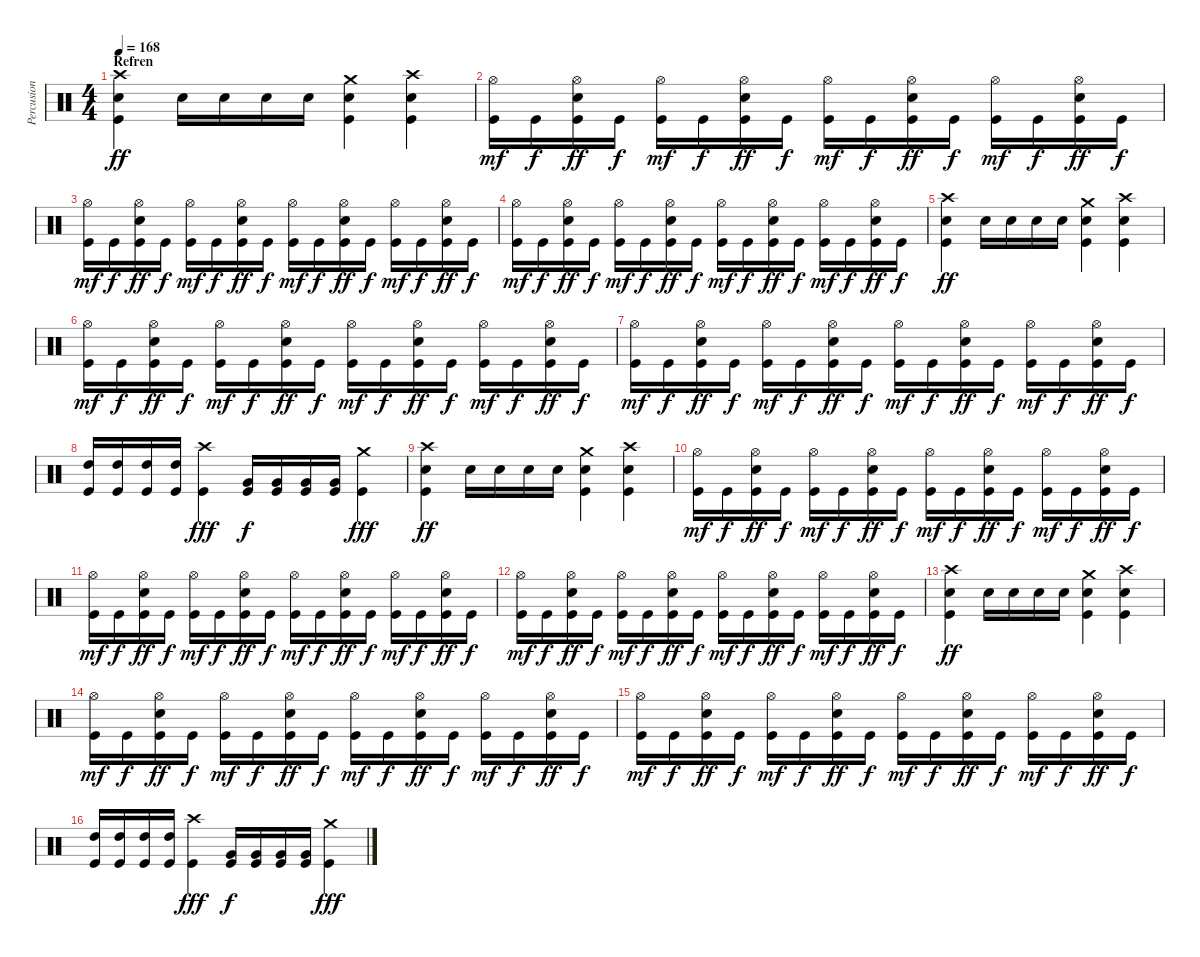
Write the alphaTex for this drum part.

\track ("Percusion" "Percusion") {instrument percussion}
\staff {score}
\articulation defaults
\ts (4 4)
\section ("" "Refren")
\tempo 168
\clef neutral
\ks c
("Crash high (hit)" "Snare (hit) 2" "Kick (hit)").4{dy ff} "Snare (hit) 2".16 "Snare (hit) 2".16 "Snare (hit) 2".16 "Snare (hit) 2".16 ("Crash medium (hit)" "Snare (hit) 2" "Kick (hit)").4 ("Crash high (hit)" "Snare (hit) 2" "Kick (hit)").4 |
("Hi-Hat (open)" "Kick (hit)").16{dy mf} "Kick (hit)".16{dy f} ("Hi-Hat (open)" "Snare (hit) 2" "Kick (hit)").16{dy ff} "Kick (hit)".16{dy f} ("Hi-Hat (open)" "Kick (hit)").16{dy mf} "Kick (hit)".16{dy f} ("Hi-Hat (open)" "Snare (hit) 2" "Kick (hit)").16{dy ff} "Kick (hit)".16{dy f} ("Hi-Hat (open)" "Kick (hit)").16{dy mf} "Kick (hit)".16{dy f} ("Hi-Hat (open)" "Snare (hit) 2" "Kick (hit)").16{dy ff} "Kick (hit)".16{dy f} ("Hi-Hat (open)" "Kick (hit)").16{dy mf} "Kick (hit)".16{dy f} ("Hi-Hat (open)" "Snare (hit) 2" "Kick (hit)").16{dy ff} "Kick (hit)".16{dy f} |
("Hi-Hat (open)" "Kick (hit)").16{dy mf} "Kick (hit)".16{dy f} ("Hi-Hat (open)" "Snare (hit) 2" "Kick (hit)").16{dy ff} "Kick (hit)".16{dy f} ("Hi-Hat (open)" "Kick (hit)").16{dy mf} "Kick (hit)".16{dy f} ("Hi-Hat (open)" "Snare (hit) 2" "Kick (hit)").16{dy ff} "Kick (hit)".16{dy f} ("Hi-Hat (open)" "Kick (hit)").16{dy mf} "Kick (hit)".16{dy f} ("Hi-Hat (open)" "Snare (hit) 2" "Kick (hit)").16{dy ff} "Kick (hit)".16{dy f} ("Hi-Hat (open)" "Kick (hit)").16{dy mf} "Kick (hit)".16{dy f} ("Hi-Hat (open)" "Snare (hit) 2" "Kick (hit)").16{dy ff} "Kick (hit)".16{dy f} |
("Hi-Hat (open)" "Kick (hit)").16{dy mf} "Kick (hit)".16{dy f} ("Hi-Hat (open)" "Snare (hit) 2" "Kick (hit)").16{dy ff} "Kick (hit)".16{dy f} ("Hi-Hat (open)" "Kick (hit)").16{dy mf} "Kick (hit)".16{dy f} ("Hi-Hat (open)" "Snare (hit) 2" "Kick (hit)").16{dy ff} "Kick (hit)".16{dy f} ("Hi-Hat (open)" "Kick (hit)").16{dy mf} "Kick (hit)".16{dy f} ("Hi-Hat (open)" "Snare (hit) 2" "Kick (hit)").16{dy ff} "Kick (hit)".16{dy f} ("Hi-Hat (open)" "Kick (hit)").16{dy mf} "Kick (hit)".16{dy f} ("Hi-Hat (open)" "Snare (hit) 2" "Kick (hit)").16{dy ff} "Kick (hit)".16{dy f} |
("Crash high (hit)" "Snare (hit) 2" "Kick (hit)").4{dy ff} "Snare (hit) 2".16 "Snare (hit) 2".16 "Snare (hit) 2".16 "Snare (hit) 2".16 ("Crash medium (hit)" "Snare (hit) 2" "Kick (hit)").4 ("Crash high (hit)" "Snare (hit) 2" "Kick (hit)").4 |
("Hi-Hat (open)" "Kick (hit)").16{dy mf} "Kick (hit)".16{dy f} ("Hi-Hat (open)" "Snare (hit) 2" "Kick (hit)").16{dy ff} "Kick (hit)".16{dy f} ("Hi-Hat (open)" "Kick (hit)").16{dy mf} "Kick (hit)".16{dy f} ("Hi-Hat (open)" "Snare (hit) 2" "Kick (hit)").16{dy ff} "Kick (hit)".16{dy f} ("Hi-Hat (open)" "Kick (hit)").16{dy mf} "Kick (hit)".16{dy f} ("Hi-Hat (open)" "Snare (hit) 2" "Kick (hit)").16{dy ff} "Kick (hit)".16{dy f} ("Hi-Hat (open)" "Kick (hit)").16{dy mf} "Kick (hit)".16{dy f} ("Hi-Hat (open)" "Snare (hit) 2" "Kick (hit)").16{dy ff} "Kick (hit)".16{dy f} |
("Hi-Hat (open)" "Kick (hit)").16{dy mf} "Kick (hit)".16{dy f} ("Hi-Hat (open)" "Snare (hit) 2" "Kick (hit)").16{dy ff} "Kick (hit)".16{dy f} ("Hi-Hat (open)" "Kick (hit)").16{dy mf} "Kick (hit)".16{dy f} ("Hi-Hat (open)" "Snare (hit) 2" "Kick (hit)").16{dy ff} "Kick (hit)".16{dy f} ("Hi-Hat (open)" "Kick (hit)").16{dy mf} "Kick (hit)".16{dy f} ("Hi-Hat (open)" "Snare (hit) 2" "Kick (hit)").16{dy ff} "Kick (hit)".16{dy f} ("Hi-Hat (open)" "Kick (hit)").16{dy mf} "Kick (hit)".16{dy f} ("Hi-Hat (open)" "Snare (hit) 2" "Kick (hit)").16{dy ff} "Kick (hit)".16{dy f} |
("High Tom (hit)" "Kick (hit)").16 ("High Tom (hit)" "Kick (hit)").16 ("High Tom (hit)" "Kick (hit)").16 ("High Tom (hit)" "Kick (hit)").16 ("Crash high (hit)" "Kick (hit)").4{dy fff} ("Very Low Tom (hit)" "Kick (hit)").16{dy f} ("Very Low Tom (hit)" "Kick (hit)").16 ("Very Low Tom (hit)" "Kick (hit)").16 ("Very Low Tom (hit)" "Kick (hit)").16 ("Crash medium (hit)" "Kick (hit)").4{dy fff} |
("Crash high (hit)" "Snare (hit) 2" "Kick (hit)").4{dy ff} "Snare (hit) 2".16 "Snare (hit) 2".16 "Snare (hit) 2".16 "Snare (hit) 2".16 ("Crash medium (hit)" "Snare (hit) 2" "Kick (hit)").4 ("Crash high (hit)" "Snare (hit) 2" "Kick (hit)").4 |
("Hi-Hat (open)" "Kick (hit)").16{dy mf} "Kick (hit)".16{dy f} ("Hi-Hat (open)" "Snare (hit) 2" "Kick (hit)").16{dy ff} "Kick (hit)".16{dy f} ("Hi-Hat (open)" "Kick (hit)").16{dy mf} "Kick (hit)".16{dy f} ("Hi-Hat (open)" "Snare (hit) 2" "Kick (hit)").16{dy ff} "Kick (hit)".16{dy f} ("Hi-Hat (open)" "Kick (hit)").16{dy mf} "Kick (hit)".16{dy f} ("Hi-Hat (open)" "Snare (hit) 2" "Kick (hit)").16{dy ff} "Kick (hit)".16{dy f} ("Hi-Hat (open)" "Kick (hit)").16{dy mf} "Kick (hit)".16{dy f} ("Hi-Hat (open)" "Snare (hit) 2" "Kick (hit)").16{dy ff} "Kick (hit)".16{dy f} |
("Hi-Hat (open)" "Kick (hit)").16{dy mf} "Kick (hit)".16{dy f} ("Hi-Hat (open)" "Snare (hit) 2" "Kick (hit)").16{dy ff} "Kick (hit)".16{dy f} ("Hi-Hat (open)" "Kick (hit)").16{dy mf} "Kick (hit)".16{dy f} ("Hi-Hat (open)" "Snare (hit) 2" "Kick (hit)").16{dy ff} "Kick (hit)".16{dy f} ("Hi-Hat (open)" "Kick (hit)").16{dy mf} "Kick (hit)".16{dy f} ("Hi-Hat (open)" "Snare (hit) 2" "Kick (hit)").16{dy ff} "Kick (hit)".16{dy f} ("Hi-Hat (open)" "Kick (hit)").16{dy mf} "Kick (hit)".16{dy f} ("Hi-Hat (open)" "Snare (hit) 2" "Kick (hit)").16{dy ff} "Kick (hit)".16{dy f} |
("Hi-Hat (open)" "Kick (hit)").16{dy mf} "Kick (hit)".16{dy f} ("Hi-Hat (open)" "Snare (hit) 2" "Kick (hit)").16{dy ff} "Kick (hit)".16{dy f} ("Hi-Hat (open)" "Kick (hit)").16{dy mf} "Kick (hit)".16{dy f} ("Hi-Hat (open)" "Snare (hit) 2" "Kick (hit)").16{dy ff} "Kick (hit)".16{dy f} ("Hi-Hat (open)" "Kick (hit)").16{dy mf} "Kick (hit)".16{dy f} ("Hi-Hat (open)" "Snare (hit) 2" "Kick (hit)").16{dy ff} "Kick (hit)".16{dy f} ("Hi-Hat (open)" "Kick (hit)").16{dy mf} "Kick (hit)".16{dy f} ("Hi-Hat (open)" "Snare (hit) 2" "Kick (hit)").16{dy ff} "Kick (hit)".16{dy f} |
("Crash high (hit)" "Snare (hit) 2" "Kick (hit)").4{dy ff} "Snare (hit) 2".16 "Snare (hit) 2".16 "Snare (hit) 2".16 "Snare (hit) 2".16 ("Crash medium (hit)" "Snare (hit) 2" "Kick (hit)").4 ("Crash high (hit)" "Snare (hit) 2" "Kick (hit)").4 |
("Hi-Hat (open)" "Kick (hit)").16{dy mf} "Kick (hit)".16{dy f} ("Hi-Hat (open)" "Snare (hit) 2" "Kick (hit)").16{dy ff} "Kick (hit)".16{dy f} ("Hi-Hat (open)" "Kick (hit)").16{dy mf} "Kick (hit)".16{dy f} ("Hi-Hat (open)" "Snare (hit) 2" "Kick (hit)").16{dy ff} "Kick (hit)".16{dy f} ("Hi-Hat (open)" "Kick (hit)").16{dy mf} "Kick (hit)".16{dy f} ("Hi-Hat (open)" "Snare (hit) 2" "Kick (hit)").16{dy ff} "Kick (hit)".16{dy f} ("Hi-Hat (open)" "Kick (hit)").16{dy mf} "Kick (hit)".16{dy f} ("Hi-Hat (open)" "Snare (hit) 2" "Kick (hit)").16{dy ff} "Kick (hit)".16{dy f} |
("Hi-Hat (open)" "Kick (hit)").16{dy mf} "Kick (hit)".16{dy f} ("Hi-Hat (open)" "Snare (hit) 2" "Kick (hit)").16{dy ff} "Kick (hit)".16{dy f} ("Hi-Hat (open)" "Kick (hit)").16{dy mf} "Kick (hit)".16{dy f} ("Hi-Hat (open)" "Snare (hit) 2" "Kick (hit)").16{dy ff} "Kick (hit)".16{dy f} ("Hi-Hat (open)" "Kick (hit)").16{dy mf} "Kick (hit)".16{dy f} ("Hi-Hat (open)" "Snare (hit) 2" "Kick (hit)").16{dy ff} "Kick (hit)".16{dy f} ("Hi-Hat (open)" "Kick (hit)").16{dy mf} "Kick (hit)".16{dy f} ("Hi-Hat (open)" "Snare (hit) 2" "Kick (hit)").16{dy ff} "Kick (hit)".16{dy f} |
("High Tom (hit)" "Kick (hit)").16 ("High Tom (hit)" "Kick (hit)").16 ("High Tom (hit)" "Kick (hit)").16 ("High Tom (hit)" "Kick (hit)").16 ("Crash high (hit)" "Kick (hit)").4{dy fff} ("Very Low Tom (hit)" "Kick (hit)").16{dy f} ("Very Low Tom (hit)" "Kick (hit)").16 ("Very Low Tom (hit)" "Kick (hit)").16 ("Very Low Tom (hit)" "Kick (hit)").16 ("Crash medium (hit)" "Kick (hit)").4{dy fff}
